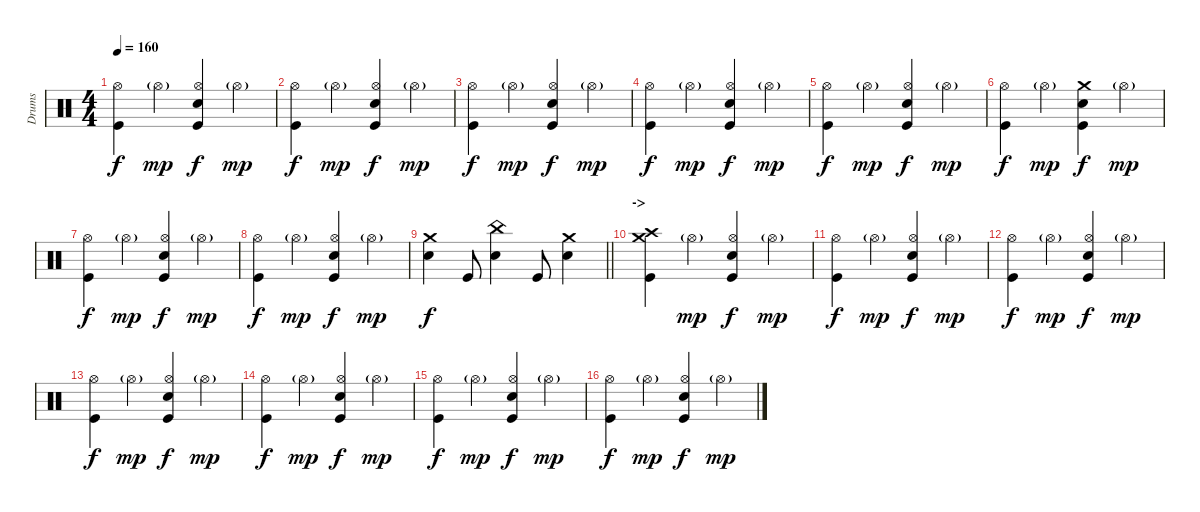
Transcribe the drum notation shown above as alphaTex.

\track ("Drums" "Drums") {instrument percussion}
\staff {score}
\articulation defaults
\ts (4 4)
\tempo 160
\clef neutral
\ks c
("Kick (hit)" "Hi-Hat (open)").4{dy f} "Hi-Hat (open)"{g}.4{dy mp} ("Kick (hit)" "Electric Snare (hit)" "Hi-Hat (open)").4{dy f} "Hi-Hat (open)"{g}.4{dy mp} |
("Kick (hit)" "Hi-Hat (open)").4{dy f} "Hi-Hat (open)"{g}.4{dy mp} ("Kick (hit)" "Electric Snare (hit)" "Hi-Hat (open)").4{dy f} "Hi-Hat (open)"{g}.4{dy mp} |
("Kick (hit)" "Hi-Hat (open)").4{dy f} "Hi-Hat (open)"{g}.4{dy mp} ("Kick (hit)" "Electric Snare (hit)" "Hi-Hat (open)").4{dy f} "Hi-Hat (open)"{g}.4{dy mp} |
("Kick (hit)" "Hi-Hat (open)").4{dy f} "Hi-Hat (open)"{g}.4{dy mp} ("Kick (hit)" "Electric Snare (hit)" "Hi-Hat (open)").4{dy f} "Hi-Hat (open)"{g}.4{dy mp} |
("Kick (hit)" "Hi-Hat (open)").4{dy f} "Hi-Hat (open)"{g}.4{dy mp} ("Kick (hit)" "Electric Snare (hit)" "Hi-Hat (open)").4{dy f} "Hi-Hat (open)"{g}.4{dy mp} |
("Kick (hit)" "Hi-Hat (open)").4{dy f} "Hi-Hat (open)"{g}.4{dy mp} ("Kick (hit)" "Electric Snare (hit)" "Crash medium (hit)").4{dy f} "Hi-Hat (open)"{g}.4{dy mp} |
("Kick (hit)" "Hi-Hat (open)").4{dy f} "Hi-Hat (open)"{g}.4{dy mp} ("Kick (hit)" "Electric Snare (hit)" "Hi-Hat (open)").4{dy f} "Hi-Hat (open)"{g}.4{dy mp} |
("Kick (hit)" "Hi-Hat (open)").4{dy f} "Hi-Hat (open)"{g}.4{dy mp} ("Kick (hit)" "Electric Snare (hit)" "Hi-Hat (open)").4{dy f} "Hi-Hat (open)"{g}.4{dy mp} |
\barLineRight lightlight
("Electric Snare (hit)" "Crash medium (hit)").4{dy f} "Kick (hit)".8 ("Electric Snare (hit)" "China (hit)").4 "Kick (hit)".8 ("Electric Snare (hit)" "Crash medium (hit)").4 |
\section ("" "->")
("Kick (hit)" "Crash high (hit)" "Crash medium (hit)").4 "Hi-Hat (open)"{g}.4{dy mp} ("Kick (hit)" "Electric Snare (hit)" "Hi-Hat (open)").4{dy f} "Hi-Hat (open)"{g}.4{dy mp} |
("Kick (hit)" "Hi-Hat (open)").4{dy f} "Hi-Hat (open)"{g}.4{dy mp} ("Kick (hit)" "Electric Snare (hit)" "Hi-Hat (open)").4{dy f} "Hi-Hat (open)"{g}.4{dy mp} |
("Kick (hit)" "Hi-Hat (open)").4{dy f} "Hi-Hat (open)"{g}.4{dy mp} ("Kick (hit)" "Electric Snare (hit)" "Hi-Hat (open)").4{dy f} "Hi-Hat (open)"{g}.4{dy mp} |
("Kick (hit)" "Hi-Hat (open)").4{dy f} "Hi-Hat (open)"{g}.4{dy mp} ("Kick (hit)" "Electric Snare (hit)" "Hi-Hat (open)").4{dy f} "Hi-Hat (open)"{g}.4{dy mp} |
("Kick (hit)" "Hi-Hat (open)").4{dy f} "Hi-Hat (open)"{g}.4{dy mp} ("Kick (hit)" "Electric Snare (hit)" "Hi-Hat (open)").4{dy f} "Hi-Hat (open)"{g}.4{dy mp} |
("Kick (hit)" "Hi-Hat (open)").4{dy f} "Hi-Hat (open)"{g}.4{dy mp} ("Kick (hit)" "Electric Snare (hit)" "Hi-Hat (open)").4{dy f} "Hi-Hat (open)"{g}.4{dy mp} |
("Kick (hit)" "Hi-Hat (open)").4{dy f} "Hi-Hat (open)"{g}.4{dy mp} ("Kick (hit)" "Electric Snare (hit)" "Hi-Hat (open)").4{dy f} "Hi-Hat (open)"{g}.4{dy mp}
